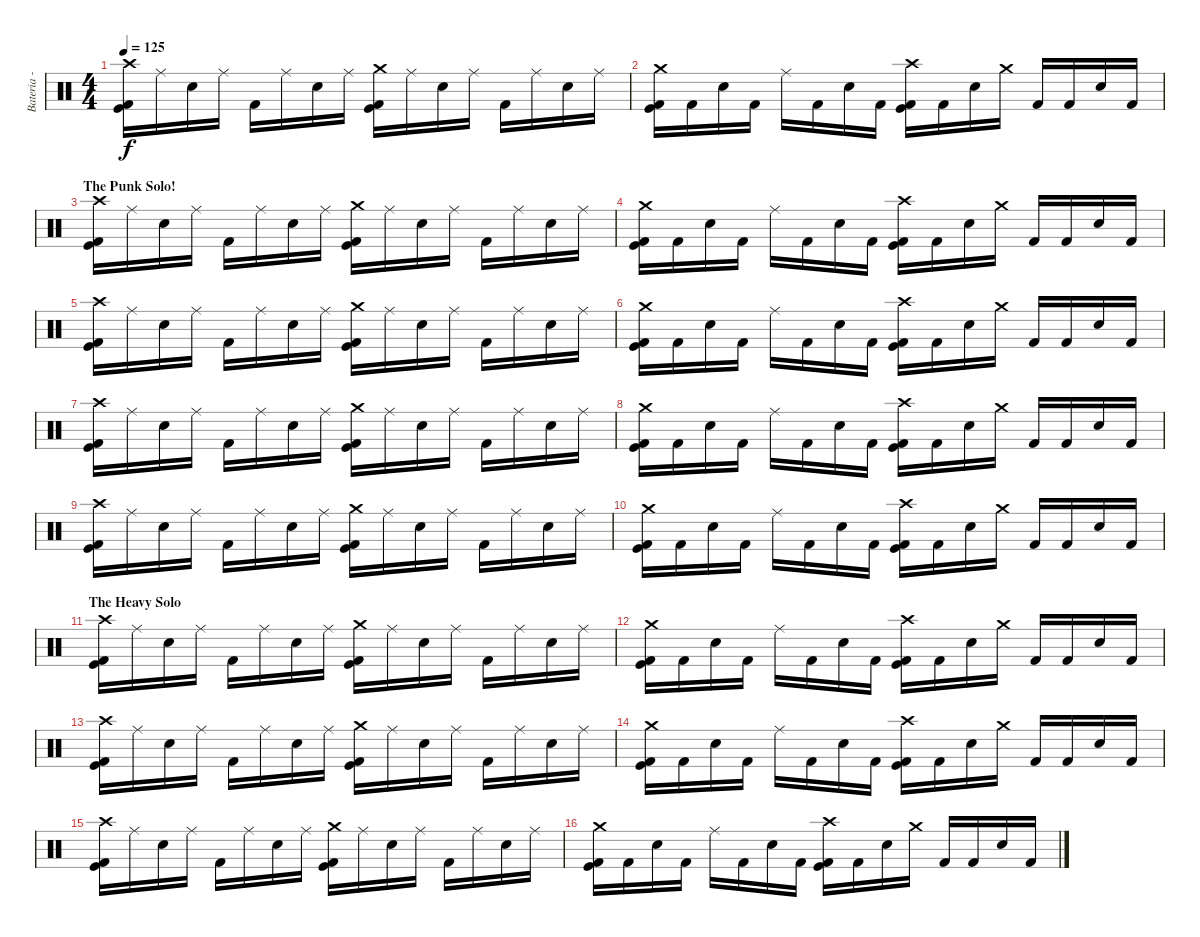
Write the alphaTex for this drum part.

\track ("Bateria - Drums" "Bateria - ") {instrument percussion}
\staff {score}
\articulation defaults
\ts (4 4)
\tempo 125
\clef neutral
\ks c
("Crash high (hit)" "Kick (hit)" "Kick (hit) 2").16{dy f} "Ride (middle)".16 "Electric Snare (hit)".16 "Ride (middle)".16 "Kick (hit) 2".16 "Ride (middle)".16 "Electric Snare (hit)".16 "Ride (middle)".16 ("Crash medium (hit)" "Kick (hit)" "Kick (hit) 2").16 "Ride (middle)".16 "Electric Snare (hit)".16 "Ride (middle)".16 "Kick (hit) 2".16 "Ride (middle)".16 "Electric Snare (hit)".16 "Ride (middle)".16 |
("Crash medium (hit)" "Kick (hit)" "Kick (hit) 2").16 "Kick (hit) 2".16 "Electric Snare (hit)".16 "Kick (hit) 2".16 "Ride (middle)".16 "Kick (hit) 2".16 "Electric Snare (hit)".16 "Kick (hit) 2".16 ("Crash high (hit)" "Kick (hit)" "Kick (hit) 2").16 "Kick (hit) 2".16 "Electric Snare (hit)".16 "Crash medium (hit)".16 "Kick (hit) 2".16 "Kick (hit) 2".16 "Electric Snare (hit)".16 "Kick (hit) 2".16 |
\section ("" "The Punk Solo!")
("Crash high (hit)" "Kick (hit)" "Kick (hit) 2").16 "Ride (middle)".16 "Electric Snare (hit)".16 "Ride (middle)".16 "Kick (hit) 2".16 "Ride (middle)".16 "Electric Snare (hit)".16 "Ride (middle)".16 ("Crash medium (hit)" "Kick (hit)" "Kick (hit) 2").16 "Ride (middle)".16 "Electric Snare (hit)".16 "Ride (middle)".16 "Kick (hit) 2".16 "Ride (middle)".16 "Electric Snare (hit)".16 "Ride (middle)".16 |
("Crash medium (hit)" "Kick (hit)" "Kick (hit) 2").16 "Kick (hit) 2".16 "Electric Snare (hit)".16 "Kick (hit) 2".16 "Ride (middle)".16 "Kick (hit) 2".16 "Electric Snare (hit)".16 "Kick (hit) 2".16 ("Crash high (hit)" "Kick (hit)" "Kick (hit) 2").16 "Kick (hit) 2".16 "Electric Snare (hit)".16 "Crash medium (hit)".16 "Kick (hit) 2".16 "Kick (hit) 2".16 "Electric Snare (hit)".16 "Kick (hit) 2".16 |
("Crash high (hit)" "Kick (hit)" "Kick (hit) 2").16 "Ride (middle)".16 "Electric Snare (hit)".16 "Ride (middle)".16 "Kick (hit) 2".16 "Ride (middle)".16 "Electric Snare (hit)".16 "Ride (middle)".16 ("Crash medium (hit)" "Kick (hit)" "Kick (hit) 2").16 "Ride (middle)".16 "Electric Snare (hit)".16 "Ride (middle)".16 "Kick (hit) 2".16 "Ride (middle)".16 "Electric Snare (hit)".16 "Ride (middle)".16 |
("Crash medium (hit)" "Kick (hit)" "Kick (hit) 2").16 "Kick (hit) 2".16 "Electric Snare (hit)".16 "Kick (hit) 2".16 "Ride (middle)".16 "Kick (hit) 2".16 "Electric Snare (hit)".16 "Kick (hit) 2".16 ("Crash high (hit)" "Kick (hit)" "Kick (hit) 2").16 "Kick (hit) 2".16 "Electric Snare (hit)".16 "Crash medium (hit)".16 "Kick (hit) 2".16 "Kick (hit) 2".16 "Electric Snare (hit)".16 "Kick (hit) 2".16 |
("Crash high (hit)" "Kick (hit)" "Kick (hit) 2").16 "Ride (middle)".16 "Electric Snare (hit)".16 "Ride (middle)".16 "Kick (hit) 2".16 "Ride (middle)".16 "Electric Snare (hit)".16 "Ride (middle)".16 ("Crash medium (hit)" "Kick (hit)" "Kick (hit) 2").16 "Ride (middle)".16 "Electric Snare (hit)".16 "Ride (middle)".16 "Kick (hit) 2".16 "Ride (middle)".16 "Electric Snare (hit)".16 "Ride (middle)".16 |
("Crash medium (hit)" "Kick (hit)" "Kick (hit) 2").16 "Kick (hit) 2".16 "Electric Snare (hit)".16 "Kick (hit) 2".16 "Ride (middle)".16 "Kick (hit) 2".16 "Electric Snare (hit)".16 "Kick (hit) 2".16 ("Crash high (hit)" "Kick (hit)" "Kick (hit) 2").16 "Kick (hit) 2".16 "Electric Snare (hit)".16 "Crash medium (hit)".16 "Kick (hit) 2".16 "Kick (hit) 2".16 "Electric Snare (hit)".16 "Kick (hit) 2".16 |
("Crash high (hit)" "Kick (hit)" "Kick (hit) 2").16 "Ride (middle)".16 "Electric Snare (hit)".16 "Ride (middle)".16 "Kick (hit) 2".16 "Ride (middle)".16 "Electric Snare (hit)".16 "Ride (middle)".16 ("Crash medium (hit)" "Kick (hit)" "Kick (hit) 2").16 "Ride (middle)".16 "Electric Snare (hit)".16 "Ride (middle)".16 "Kick (hit) 2".16 "Ride (middle)".16 "Electric Snare (hit)".16 "Ride (middle)".16 |
("Crash medium (hit)" "Kick (hit)" "Kick (hit) 2").16 "Kick (hit) 2".16 "Electric Snare (hit)".16 "Kick (hit) 2".16 "Ride (middle)".16 "Kick (hit) 2".16 "Electric Snare (hit)".16 "Kick (hit) 2".16 ("Crash high (hit)" "Kick (hit)" "Kick (hit) 2").16 "Kick (hit) 2".16 "Electric Snare (hit)".16 "Crash medium (hit)".16 "Kick (hit) 2".16 "Kick (hit) 2".16 "Electric Snare (hit)".16 "Kick (hit) 2".16 |
\section ("" "The Heavy Solo")
("Crash high (hit)" "Kick (hit)" "Kick (hit) 2").16 "Ride (middle)".16 "Electric Snare (hit)".16 "Ride (middle)".16 "Kick (hit) 2".16 "Ride (middle)".16 "Electric Snare (hit)".16 "Ride (middle)".16 ("Crash medium (hit)" "Kick (hit)" "Kick (hit) 2").16 "Ride (middle)".16 "Electric Snare (hit)".16 "Ride (middle)".16 "Kick (hit) 2".16 "Ride (middle)".16 "Electric Snare (hit)".16 "Ride (middle)".16 |
("Crash medium (hit)" "Kick (hit)" "Kick (hit) 2").16 "Kick (hit) 2".16 "Electric Snare (hit)".16 "Kick (hit) 2".16 "Ride (middle)".16 "Kick (hit) 2".16 "Electric Snare (hit)".16 "Kick (hit) 2".16 ("Crash high (hit)" "Kick (hit)" "Kick (hit) 2").16 "Kick (hit) 2".16 "Electric Snare (hit)".16 "Crash medium (hit)".16 "Kick (hit) 2".16 "Kick (hit) 2".16 "Electric Snare (hit)".16 "Kick (hit) 2".16 |
("Crash high (hit)" "Kick (hit)" "Kick (hit) 2").16 "Ride (middle)".16 "Electric Snare (hit)".16 "Ride (middle)".16 "Kick (hit) 2".16 "Ride (middle)".16 "Electric Snare (hit)".16 "Ride (middle)".16 ("Crash medium (hit)" "Kick (hit)" "Kick (hit) 2").16 "Ride (middle)".16 "Electric Snare (hit)".16 "Ride (middle)".16 "Kick (hit) 2".16 "Ride (middle)".16 "Electric Snare (hit)".16 "Ride (middle)".16 |
("Crash medium (hit)" "Kick (hit)" "Kick (hit) 2").16 "Kick (hit) 2".16 "Electric Snare (hit)".16 "Kick (hit) 2".16 "Ride (middle)".16 "Kick (hit) 2".16 "Electric Snare (hit)".16 "Kick (hit) 2".16 ("Crash high (hit)" "Kick (hit)" "Kick (hit) 2").16 "Kick (hit) 2".16 "Electric Snare (hit)".16 "Crash medium (hit)".16 "Kick (hit) 2".16 "Kick (hit) 2".16 "Electric Snare (hit)".16 "Kick (hit) 2".16 |
("Crash high (hit)" "Kick (hit)" "Kick (hit) 2").16 "Ride (middle)".16 "Electric Snare (hit)".16 "Ride (middle)".16 "Kick (hit) 2".16 "Ride (middle)".16 "Electric Snare (hit)".16 "Ride (middle)".16 ("Crash medium (hit)" "Kick (hit)" "Kick (hit) 2").16 "Ride (middle)".16 "Electric Snare (hit)".16 "Ride (middle)".16 "Kick (hit) 2".16 "Ride (middle)".16 "Electric Snare (hit)".16 "Ride (middle)".16 |
("Crash medium (hit)" "Kick (hit)" "Kick (hit) 2").16 "Kick (hit) 2".16 "Electric Snare (hit)".16 "Kick (hit) 2".16 "Ride (middle)".16 "Kick (hit) 2".16 "Electric Snare (hit)".16 "Kick (hit) 2".16 ("Crash high (hit)" "Kick (hit)" "Kick (hit) 2").16 "Kick (hit) 2".16 "Electric Snare (hit)".16 "Crash medium (hit)".16 "Kick (hit) 2".16 "Kick (hit) 2".16 "Electric Snare (hit)".16 "Kick (hit) 2".16
